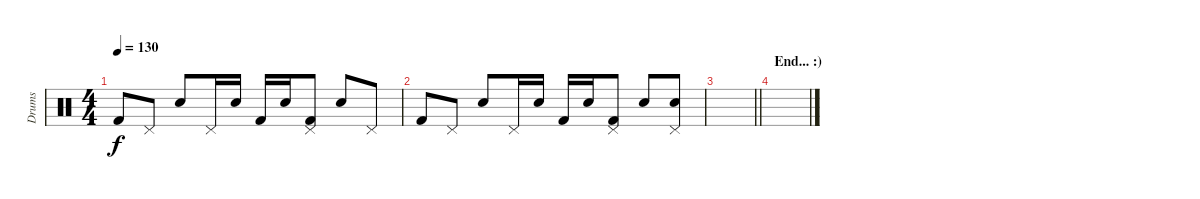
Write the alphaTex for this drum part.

\track ("Drums" "Drums") {instrument percussion}
\staff {score}
\articulation defaults
\ts (4 4)
\tempo 130
\clef neutral
\ks c "Kick (hit) 2".8{dy f} "Pedal Hi-Hat (hit)".8 "Electric Snare (hit)".8 "Pedal Hi-Hat (hit)".16 "Electric Snare (hit)".16 "Kick (hit) 2".16 "Electric Snare (hit)".16
("Kick (hit) 2" "Pedal Hi-Hat (hit)").8 "Electric Snare (hit)".8 "Pedal Hi-Hat (hit)".8 |
"Kick (hit) 2".8 "Pedal Hi-Hat (hit)".8 "Electric Snare (hit)".8 "Pedal Hi-Hat (hit)".16 "Electric Snare (hit)".16 "Kick (hit) 2".16 "Electric Snare (hit)".16 ("Kick (hit) 2" "Pedal Hi-Hat (hit)").8 "Electric Snare (hit)".8 ("Electric Snare (hit)" "Pedal Hi-Hat (hit)").8 |
\barLineRight lightlight
|
\section ("" "End... :)")
